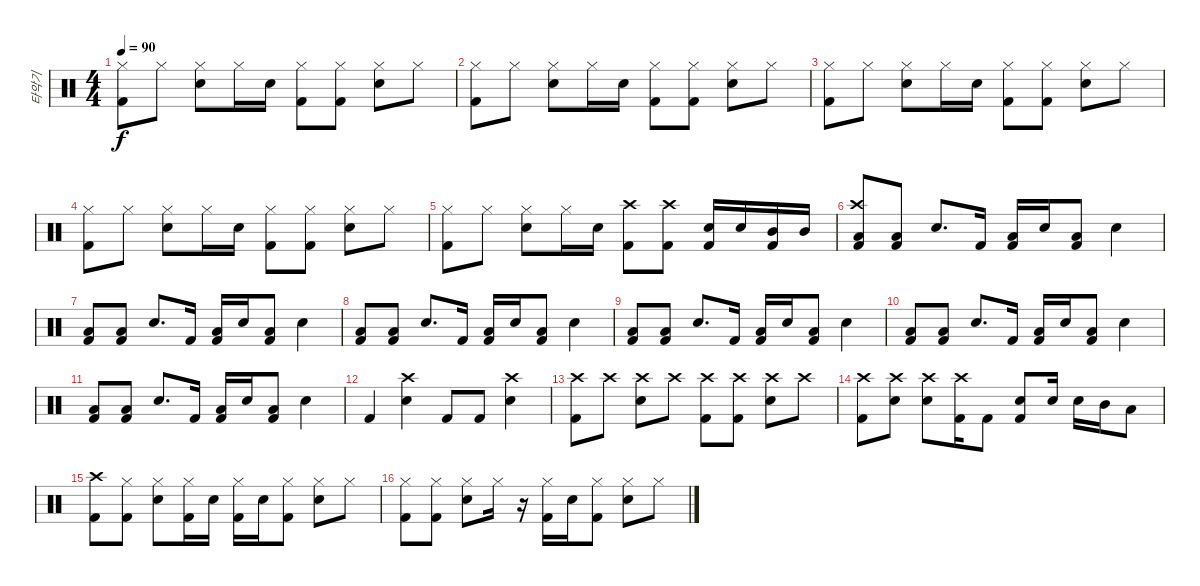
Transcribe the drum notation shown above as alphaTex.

\track ("타악기" "타악기") {instrument percussion}
\staff {score}
\articulation defaults
\ts (4 4)
\tempo 90
\clef neutral
\ks c
("Hi-Hat (closed)" "Kick (hit) 2").8{dy f} "Hi-Hat (closed)".8 ("Hi-Hat (closed)" "Electric Snare (hit)").8 "Hi-Hat (closed)".16 "Electric Snare (hit)".16 ("Hi-Hat (closed)" "Kick (hit) 2").8 ("Hi-Hat (closed)" "Kick (hit) 2").8 ("Hi-Hat (closed)" "Electric Snare (hit)").8 "Hi-Hat (closed)".8 |
("Hi-Hat (closed)" "Kick (hit) 2").8 "Hi-Hat (closed)".8 ("Hi-Hat (closed)" "Electric Snare (hit)").8 "Hi-Hat (closed)".16 "Electric Snare (hit)".16 ("Hi-Hat (closed)" "Kick (hit) 2").8 ("Hi-Hat (closed)" "Kick (hit) 2").8 ("Hi-Hat (closed)" "Electric Snare (hit)").8 "Hi-Hat (closed)".8 |
("Hi-Hat (closed)" "Kick (hit) 2").8 "Hi-Hat (closed)".8 ("Hi-Hat (closed)" "Electric Snare (hit)").8 "Hi-Hat (closed)".16 "Electric Snare (hit)".16 ("Hi-Hat (closed)" "Kick (hit) 2").8 ("Hi-Hat (closed)" "Kick (hit) 2").8 ("Hi-Hat (closed)" "Electric Snare (hit)").8 "Hi-Hat (closed)".8 |
("Hi-Hat (closed)" "Kick (hit) 2").8 "Hi-Hat (closed)".8 ("Hi-Hat (closed)" "Electric Snare (hit)").8 "Hi-Hat (closed)".16 "Electric Snare (hit)".16 ("Hi-Hat (closed)" "Kick (hit) 2").8 ("Hi-Hat (closed)" "Kick (hit) 2").8 ("Hi-Hat (closed)" "Electric Snare (hit)").8 "Hi-Hat (closed)".8 |
("Hi-Hat (closed)" "Kick (hit) 2").8 "Hi-Hat (closed)".8 ("Hi-Hat (closed)" "Electric Snare (hit)").8 "Hi-Hat (closed)".16 "Electric Snare (hit)".16 ("Crash high (hit)" "Kick (hit) 2").8 ("Crash high (hit)" "Kick (hit) 2").8 ("Electric Snare (hit)" "Kick (hit) 2").16 "Electric Snare (hit)".16 ("Mid Tom (hit)" "Kick (hit) 2").16 "Mid Tom (hit)".16 |
("Crash high (hit)" "Kick (hit) 2" "Low Floor Tom (hit)").8 ("Kick (hit) 2" "Low Floor Tom (hit)").8 "Electric Snare (hit)".8{d} "Kick (hit) 2".16 ("Kick (hit) 2" "Low Floor Tom (hit)").16 "Electric Snare (hit)".16 ("Kick (hit) 2" "Low Floor Tom (hit)").8 "Electric Snare (hit)".4 |
("Kick (hit) 2" "Low Floor Tom (hit)").8 ("Kick (hit) 2" "Low Floor Tom (hit)").8 "Electric Snare (hit)".8{d} "Kick (hit) 2".16 ("Kick (hit) 2" "Low Floor Tom (hit)").16 "Electric Snare (hit)".16 ("Kick (hit) 2" "Low Floor Tom (hit)").8 "Electric Snare (hit)".4 |
("Kick (hit) 2" "Low Floor Tom (hit)").8 ("Kick (hit) 2" "Low Floor Tom (hit)").8 "Electric Snare (hit)".8{d} "Kick (hit) 2".16 ("Kick (hit) 2" "Low Floor Tom (hit)").16 "Electric Snare (hit)".16 ("Kick (hit) 2" "Low Floor Tom (hit)").8 "Electric Snare (hit)".4 |
("Kick (hit) 2" "Low Floor Tom (hit)").8 ("Kick (hit) 2" "Low Floor Tom (hit)").8 "Electric Snare (hit)".8{d} "Kick (hit) 2".16 ("Kick (hit) 2" "Low Floor Tom (hit)").16 "Electric Snare (hit)".16 ("Kick (hit) 2" "Low Floor Tom (hit)").8 "Electric Snare (hit)".4 |
("Kick (hit) 2" "Low Floor Tom (hit)").8 ("Kick (hit) 2" "Low Floor Tom (hit)").8 "Electric Snare (hit)".8{d} "Kick (hit) 2".16 ("Kick (hit) 2" "Low Floor Tom (hit)").16 "Electric Snare (hit)".16 ("Kick (hit) 2" "Low Floor Tom (hit)").8 "Electric Snare (hit)".4 |
("Kick (hit) 2" "Low Floor Tom (hit)").8 ("Kick (hit) 2" "Low Floor Tom (hit)").8 "Electric Snare (hit)".8{d} "Kick (hit) 2".16 ("Kick (hit) 2" "Low Floor Tom (hit)").16 "Electric Snare (hit)".16 ("Kick (hit) 2" "Low Floor Tom (hit)").8 "Electric Snare (hit)".4 |
"Kick (hit) 2".4 ("Crash high (hit)" "Electric Snare (hit)").4 "Kick (hit) 2".8 "Kick (hit) 2".8 ("Crash high (hit)" "Electric Snare (hit)").4 |
("Crash high (hit)" "Kick (hit) 2").8 "Crash high (hit)".8 ("Crash high (hit)" "Electric Snare (hit)").8 "Crash high (hit)".8 ("Crash high (hit)" "Kick (hit) 2").8 ("Crash high (hit)" "Kick (hit) 2").8 ("Crash high (hit)" "Electric Snare (hit)").8 "Crash high (hit)".8 |
("Crash high (hit)" "Kick (hit) 2").8 ("Crash high (hit)" "Electric Snare (hit)").8 ("Crash high (hit)" "Electric Snare (hit)").8 ("Crash high (hit)" "Kick (hit) 2").16 "Kick (hit) 2".8 ("Electric Snare (hit)" "Kick (hit) 2").8 "Electric Snare (hit)".16 "Electric Snare (hit)".16 "Mid Tom (hit)".16 "Low Floor Tom (hit)".8 |
("Crash high (hit)" "Kick (hit) 2").8 ("Hi-Hat (closed)" "Kick (hit) 2").8 ("Hi-Hat (closed)" "Electric Snare (hit)").8 ("Hi-Hat (closed)" "Kick (hit) 2").16 "Electric Snare (hit)".16 ("Hi-Hat (closed)" "Kick (hit) 2").16 "Electric Snare (hit)".16 ("Hi-Hat (closed)" "Kick (hit) 2").8 ("Hi-Hat (closed)" "Electric Snare (hit)").8 "Hi-Hat (closed)".8 |
("Hi-Hat (closed)" "Kick (hit) 2").8 ("Hi-Hat (closed)" "Kick (hit) 2").8 ("Hi-Hat (closed)" "Electric Snare (hit)").8 "Hi-Hat (closed)".16 r.16 ("Hi-Hat (closed)" "Kick (hit) 2").16 "Electric Snare (hit)".16 ("Hi-Hat (closed)" "Kick (hit) 2").8 ("Hi-Hat (closed)" "Electric Snare (hit)").8 "Hi-Hat (closed)".8
